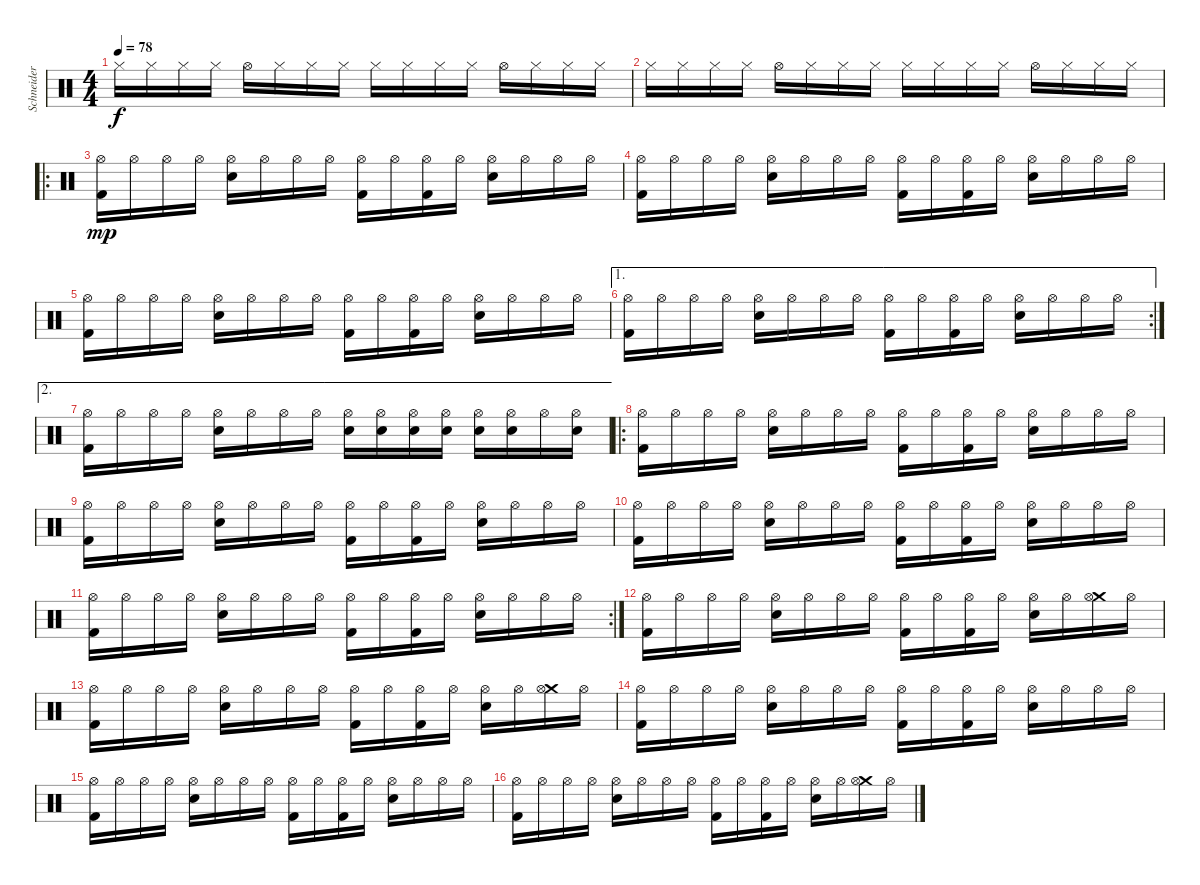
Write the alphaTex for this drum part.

\track ("Schneider" "Schneider") {instrument percussion}
\staff {score}
\articulation defaults
\ts (4 4)
\tempo 78
\clef neutral
\ks c "Hi-Hat (closed)".16{dy f} "Hi-Hat (closed)".16 "Hi-Hat (closed)".16 "Hi-Hat (closed)".16 "Hi-Hat (open)".16 "Hi-Hat (closed)".16 "Hi-Hat (closed)".16 "Hi-Hat (closed)".16 "Hi-Hat (closed)".16 "Hi-Hat (closed)".16 "Hi-Hat (closed)".16 "Hi-Hat (closed)".16 "Hi-Hat (open)".16 "Hi-Hat (closed)".16 "Hi-Hat (closed)".16 "Hi-Hat (closed)".16
|
"Hi-Hat (closed)".16 "Hi-Hat (closed)".16 "Hi-Hat (closed)".16 "Hi-Hat (closed)".16 "Hi-Hat (open)".16 "Hi-Hat (closed)".16 "Hi-Hat (closed)".16 "Hi-Hat (closed)".16 "Hi-Hat (closed)".16 "Hi-Hat (closed)".16 "Hi-Hat (closed)".16 "Hi-Hat (closed)".16 "Hi-Hat (open)".16 "Hi-Hat (closed)".16 "Hi-Hat (closed)".16 "Hi-Hat (closed)".16 |
\ro
("Kick (hit) 2" "Hi-Hat (open)").16{dy mp} "Hi-Hat (open)".16 "Hi-Hat (open)".16 "Hi-Hat (open)".16 ("Electric Snare (hit)" "Hi-Hat (open)").16 "Hi-Hat (open)".16 "Hi-Hat (open)".16 "Hi-Hat (open)".16 ("Kick (hit) 2" "Hi-Hat (open)").16 "Hi-Hat (open)".16 ("Kick (hit) 2" "Hi-Hat (open)").16 "Hi-Hat (open)".16 ("Electric Snare (hit)" "Hi-Hat (open)").16 "Hi-Hat (open)".16 "Hi-Hat (open)".16 "Hi-Hat (open)".16 |
("Kick (hit) 2" "Hi-Hat (open)").16 "Hi-Hat (open)".16 "Hi-Hat (open)".16 "Hi-Hat (open)".16 ("Electric Snare (hit)" "Hi-Hat (open)").16 "Hi-Hat (open)".16 "Hi-Hat (open)".16 "Hi-Hat (open)".16 ("Kick (hit) 2" "Hi-Hat (open)").16 "Hi-Hat (open)".16 ("Kick (hit) 2" "Hi-Hat (open)").16 "Hi-Hat (open)".16 ("Electric Snare (hit)" "Hi-Hat (open)").16 "Hi-Hat (open)".16 "Hi-Hat (open)".16 "Hi-Hat (open)".16 |
("Kick (hit) 2" "Hi-Hat (open)").16 "Hi-Hat (open)".16 "Hi-Hat (open)".16 "Hi-Hat (open)".16 ("Electric Snare (hit)" "Hi-Hat (open)").16 "Hi-Hat (open)".16 "Hi-Hat (open)".16 "Hi-Hat (open)".16 ("Kick (hit) 2" "Hi-Hat (open)").16 "Hi-Hat (open)".16 ("Kick (hit) 2" "Hi-Hat (open)").16 "Hi-Hat (open)".16 ("Electric Snare (hit)" "Hi-Hat (open)").16 "Hi-Hat (open)".16 "Hi-Hat (open)".16 "Hi-Hat (open)".16 |
\ae 1
\rc 2
("Kick (hit) 2" "Hi-Hat (open)").16 "Hi-Hat (open)".16 "Hi-Hat (open)".16 "Hi-Hat (open)".16 ("Electric Snare (hit)" "Hi-Hat (open)").16 "Hi-Hat (open)".16 "Hi-Hat (open)".16 "Hi-Hat (open)".16 ("Kick (hit) 2" "Hi-Hat (open)").16 "Hi-Hat (open)".16 ("Kick (hit) 2" "Hi-Hat (open)").16 "Hi-Hat (open)".16 ("Electric Snare (hit)" "Hi-Hat (open)").16 "Hi-Hat (open)".16 "Hi-Hat (open)".16 "Hi-Hat (open)".16 |
\ae 2
("Kick (hit) 2" "Hi-Hat (open)").16 "Hi-Hat (open)".16 "Hi-Hat (open)".16 "Hi-Hat (open)".16 ("Electric Snare (hit)" "Hi-Hat (open)").16 "Hi-Hat (open)".16 "Hi-Hat (open)".16 "Hi-Hat (open)".16 ("Electric Snare (hit)" "Hi-Hat (open)").16 ("Electric Snare (hit)" "Hi-Hat (open)").16 ("Electric Snare (hit)" "Hi-Hat (open)").16 ("Electric Snare (hit)" "Hi-Hat (open)").16 ("Electric Snare (hit)" "Hi-Hat (open)").16 ("Electric Snare (hit)" "Hi-Hat (open)").16 "Hi-Hat (open)".16 ("Electric Snare (hit)" "Hi-Hat (open)").16 |
\ro
("Kick (hit) 2" "Hi-Hat (open)").16 "Hi-Hat (open)".16 "Hi-Hat (open)".16 "Hi-Hat (open)".16 ("Electric Snare (hit)" "Hi-Hat (open)").16 "Hi-Hat (open)".16 "Hi-Hat (open)".16 "Hi-Hat (open)".16 ("Kick (hit) 2" "Hi-Hat (open)").16 "Hi-Hat (open)".16 ("Kick (hit) 2" "Hi-Hat (open)").16 "Hi-Hat (open)".16 ("Electric Snare (hit)" "Hi-Hat (open)").16 "Hi-Hat (open)".16 "Hi-Hat (open)".16 "Hi-Hat (open)".16 |
("Kick (hit) 2" "Hi-Hat (open)").16 "Hi-Hat (open)".16 "Hi-Hat (open)".16 "Hi-Hat (open)".16 ("Electric Snare (hit)" "Hi-Hat (open)").16 "Hi-Hat (open)".16 "Hi-Hat (open)".16 "Hi-Hat (open)".16 ("Kick (hit) 2" "Hi-Hat (open)").16 "Hi-Hat (open)".16 ("Kick (hit) 2" "Hi-Hat (open)").16 "Hi-Hat (open)".16 ("Electric Snare (hit)" "Hi-Hat (open)").16 "Hi-Hat (open)".16 "Hi-Hat (open)".16 "Hi-Hat (open)".16 |
("Kick (hit) 2" "Hi-Hat (open)").16 "Hi-Hat (open)".16 "Hi-Hat (open)".16 "Hi-Hat (open)".16 ("Electric Snare (hit)" "Hi-Hat (open)").16 "Hi-Hat (open)".16 "Hi-Hat (open)".16 "Hi-Hat (open)".16 ("Kick (hit) 2" "Hi-Hat (open)").16 "Hi-Hat (open)".16 ("Kick (hit) 2" "Hi-Hat (open)").16 "Hi-Hat (open)".16 ("Electric Snare (hit)" "Hi-Hat (open)").16 "Hi-Hat (open)".16 "Hi-Hat (open)".16 "Hi-Hat (open)".16 |
\rc 2
("Kick (hit) 2" "Hi-Hat (open)").16 "Hi-Hat (open)".16 "Hi-Hat (open)".16 "Hi-Hat (open)".16 ("Electric Snare (hit)" "Hi-Hat (open)").16 "Hi-Hat (open)".16 "Hi-Hat (open)".16 "Hi-Hat (open)".16 ("Kick (hit) 2" "Hi-Hat (open)").16 "Hi-Hat (open)".16 ("Kick (hit) 2" "Hi-Hat (open)").16 "Hi-Hat (open)".16 ("Electric Snare (hit)" "Hi-Hat (open)").16 "Hi-Hat (open)".16 "Hi-Hat (open)".16 "Hi-Hat (open)".16 |
("Kick (hit) 2" "Hi-Hat (open)").16 "Hi-Hat (open)".16 "Hi-Hat (open)".16 "Hi-Hat (open)".16 ("Electric Snare (hit)" "Hi-Hat (open)").16 "Hi-Hat (open)".16 "Hi-Hat (open)".16 "Hi-Hat (open)".16 ("Kick (hit) 2" "Hi-Hat (open)").16 "Hi-Hat (open)".16 ("Kick (hit) 2" "Hi-Hat (open)").16 "Hi-Hat (open)".16 ("Electric Snare (hit)" "Hi-Hat (open)").16 "Hi-Hat (open)".16 ("Crash medium (hit)" "Hi-Hat (open)").16 "Hi-Hat (open)".16 |
("Kick (hit) 2" "Hi-Hat (open)").16 "Hi-Hat (open)".16 "Hi-Hat (open)".16 "Hi-Hat (open)".16 ("Electric Snare (hit)" "Hi-Hat (open)").16 "Hi-Hat (open)".16 "Hi-Hat (open)".16 "Hi-Hat (open)".16 ("Kick (hit) 2" "Hi-Hat (open)").16 "Hi-Hat (open)".16 ("Kick (hit) 2" "Hi-Hat (open)").16 "Hi-Hat (open)".16 ("Electric Snare (hit)" "Hi-Hat (open)").16 "Hi-Hat (open)".16 ("Crash medium (hit)" "Hi-Hat (open)").16 "Hi-Hat (open)".16 |
("Kick (hit) 2" "Hi-Hat (open)").16 "Hi-Hat (open)".16 "Hi-Hat (open)".16 "Hi-Hat (open)".16 ("Electric Snare (hit)" "Hi-Hat (open)").16 "Hi-Hat (open)".16 "Hi-Hat (open)".16 "Hi-Hat (open)".16 ("Kick (hit) 2" "Hi-Hat (open)").16 "Hi-Hat (open)".16 ("Kick (hit) 2" "Hi-Hat (open)").16 "Hi-Hat (open)".16 ("Electric Snare (hit)" "Hi-Hat (open)").16 "Hi-Hat (open)".16 "Hi-Hat (open)".16 "Hi-Hat (open)".16 |
("Kick (hit) 2" "Hi-Hat (open)").16 "Hi-Hat (open)".16 "Hi-Hat (open)".16 "Hi-Hat (open)".16 ("Electric Snare (hit)" "Hi-Hat (open)").16 "Hi-Hat (open)".16 "Hi-Hat (open)".16 "Hi-Hat (open)".16 ("Kick (hit) 2" "Hi-Hat (open)").16 "Hi-Hat (open)".16 ("Kick (hit) 2" "Hi-Hat (open)").16 "Hi-Hat (open)".16 ("Electric Snare (hit)" "Hi-Hat (open)").16 "Hi-Hat (open)".16 "Hi-Hat (open)".16 "Hi-Hat (open)".16 |
("Kick (hit) 2" "Hi-Hat (open)").16 "Hi-Hat (open)".16 "Hi-Hat (open)".16 "Hi-Hat (open)".16 ("Electric Snare (hit)" "Hi-Hat (open)").16 "Hi-Hat (open)".16 "Hi-Hat (open)".16 "Hi-Hat (open)".16 ("Kick (hit) 2" "Hi-Hat (open)").16 "Hi-Hat (open)".16 ("Kick (hit) 2" "Hi-Hat (open)").16 "Hi-Hat (open)".16 ("Electric Snare (hit)" "Hi-Hat (open)").16 "Hi-Hat (open)".16 ("Crash medium (hit)" "Hi-Hat (open)").16 "Hi-Hat (open)".16
